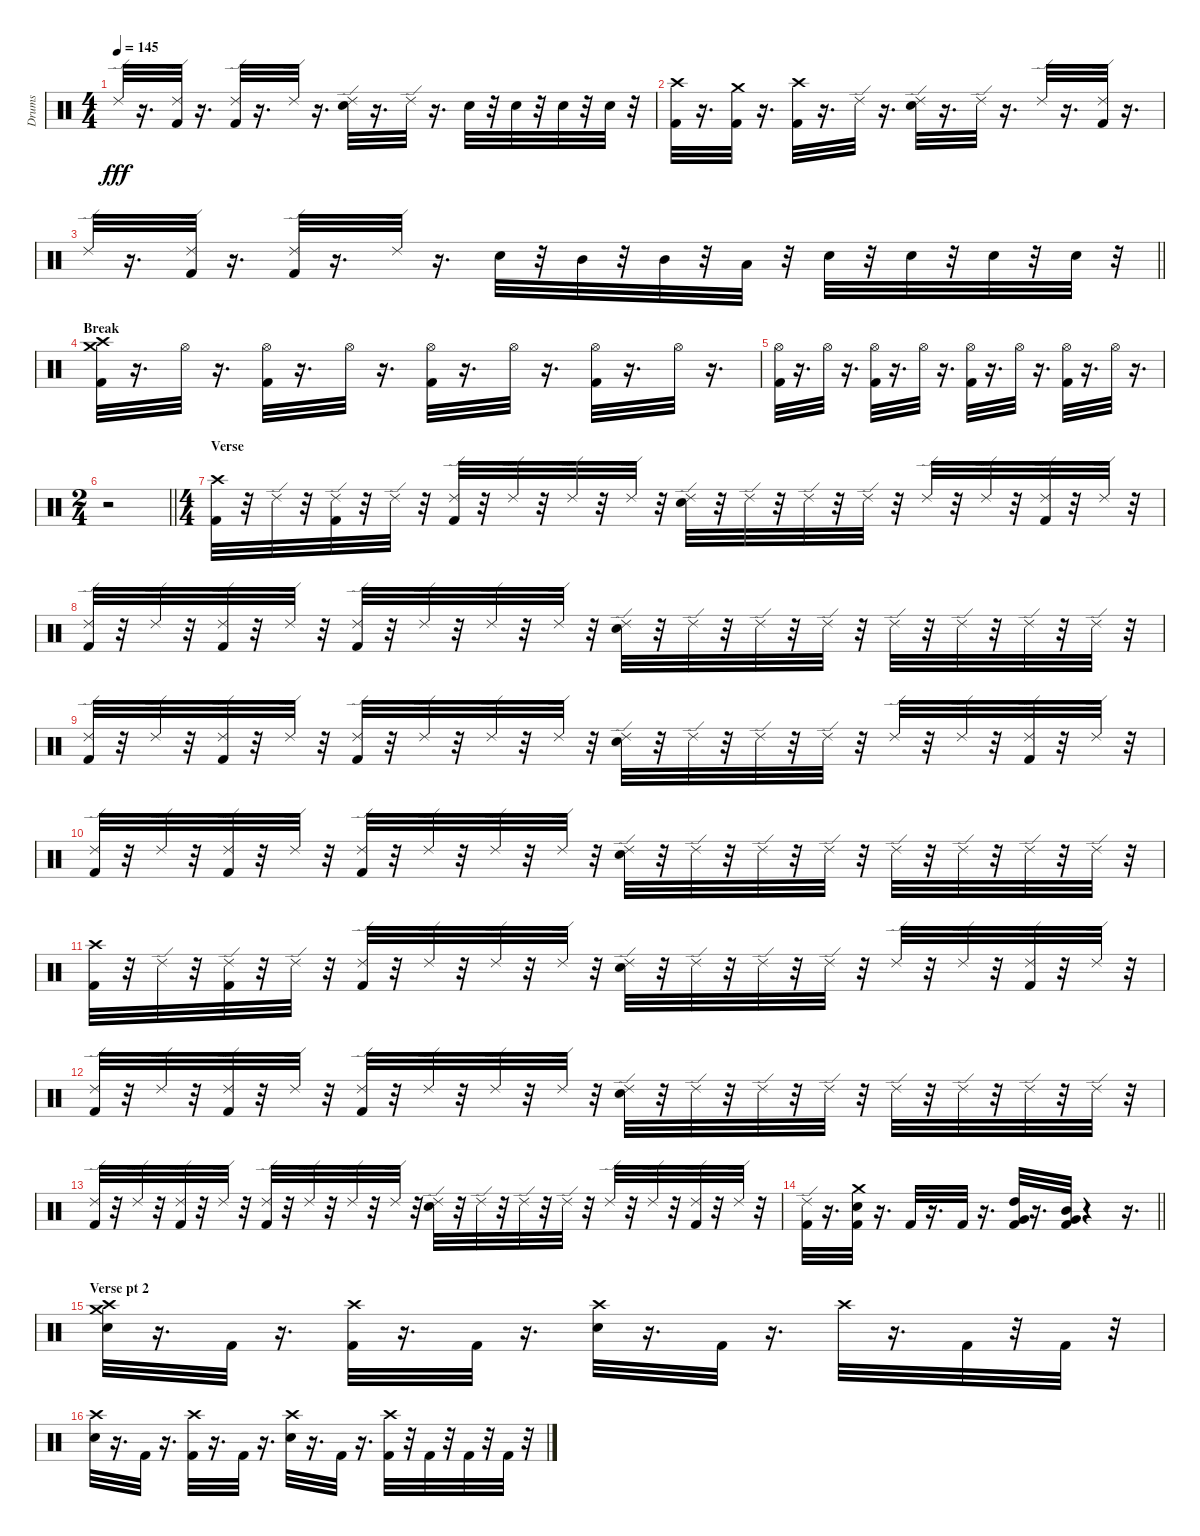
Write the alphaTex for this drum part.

\track ("Drums" "Drums") {instrument percussion}
\staff {score}
\articulation defaults
\ts (4 4)
\tempo 145
\clef neutral
\ks c "Ride (edge) 2".32{dy fff}
r.16{d} ("Ride (edge) 2" "Kick (hit) 2").32 r.16{d} ("Ride (edge) 2" "Kick (hit) 2").32 r.16{d} "Ride (edge) 2".32 r.16{d} ("Ride (edge) 2" "Snare (hit) 2").32 r.16{d} "Ride (edge) 2".32 r.16{d} "Snare (hit) 2".32 r.32 "Snare (hit) 2".32 r.32 "Snare (hit) 2".32 r.32 "Snare (hit) 2".32 r.32 |
("Crash high (hit)" "Kick (hit) 2").32 r.16{d} ("Crash medium (hit)" "Kick (hit) 2").32 r.16{d} ("Crash high (hit)" "Kick (hit) 2").32 r.16{d} "Ride (edge) 2".32 r.16{d} ("Ride (edge) 2" "Snare (hit) 2").32 r.16{d} "Ride (edge) 2".32 r.16{d} "Ride (edge) 2".32 r.16{d} ("Ride (edge) 2" "Kick (hit) 2").32 r.16{d} |
\barLineRight lightlight "Ride (edge) 2".32
r.16{d} ("Ride (edge) 2" "Kick (hit) 2").32 r.16{d} ("Ride (edge) 2" "Kick (hit) 2").32 r.16{d} "Ride (edge) 2".32 r.16{d} "Snare (hit) 2".32 r.32 "Mid Tom (hit)".32 r.32 "Mid Tom (hit)".32 r.32 "Low Tom (hit)".32 r.32 "Snare (hit) 2".32 r.32 "Snare (hit) 2".32 r.32 "Snare (hit) 2".32 r.32 "Snare (hit) 2".32 r.32 |
\section ("" "Break")
("Kick (hit) 2" "Crash medium (hit)" "Crash high (hit)").32 r.16{d} "Hi-Hat (open)".32 r.16{d} ("Hi-Hat (open)" "Kick (hit) 2").32 r.16{d} "Hi-Hat (open)".32 r.16{d} ("Hi-Hat (open)" "Kick (hit) 2").32 r.16{d} "Hi-Hat (open)".32 r.16{d} ("Hi-Hat (open)" "Kick (hit) 2").32 r.16{d} "Hi-Hat (open)".32 r.16{d} |
("Hi-Hat (open)" "Kick (hit) 2").32 r.16{d} "Hi-Hat (open)".32 r.16{d} ("Hi-Hat (open)" "Kick (hit) 2").32 r.16{d} "Hi-Hat (open)".32 r.16{d} ("Hi-Hat (open)" "Kick (hit) 2").32 r.16{d} "Hi-Hat (open)".32 r.16{d} ("Hi-Hat (open)" "Kick (hit) 2").32 r.16{d} "Hi-Hat (open)".32 r.16{d} |
\ts (2 4)
\barLineRight lightlight
r.2 |
\ts (4 4)
\section ("" "Verse")
("Crash high (hit)" "Kick (hit) 2").32 r.32 "Ride (edge) 2".32 r.32 ("Ride (edge) 2" "Kick (hit) 2").32 r.32 "Ride (edge) 2".32 r.32 ("Ride (edge) 2" "Kick (hit) 2").32 r.32 "Ride (edge) 2".32 r.32 "Ride (edge) 2".32 r.32 "Ride (edge) 2".32 r.32 ("Ride (edge) 2" "Snare (hit) 2").32 r.32 "Ride (edge) 2".32 r.32 "Ride (edge) 2".32 r.32 "Ride (edge) 2".32 r.32 "Ride (edge) 2".32 r.32 "Ride (edge) 2".32 r.32 ("Ride (edge) 2" "Kick (hit) 2").32 r.32 "Ride (edge) 2".32 r.32 |
("Ride (edge) 2" "Kick (hit) 2").32 r.32 "Ride (edge) 2".32 r.32 ("Ride (edge) 2" "Kick (hit) 2").32 r.32 "Ride (edge) 2".32 r.32 ("Ride (edge) 2" "Kick (hit) 2").32 r.32 "Ride (edge) 2".32 r.32 "Ride (edge) 2".32 r.32 "Ride (edge) 2".32 r.32 ("Ride (edge) 2" "Snare (hit) 2").32 r.32 "Ride (edge) 2".32 r.32 "Ride (edge) 2".32 r.32 "Ride (edge) 2".32 r.32 "Ride (edge) 2".32 r.32 "Ride (edge) 2".32 r.32 "Ride (edge) 2".32 r.32 "Ride (edge) 2".32 r.32 |
("Ride (edge) 2" "Kick (hit) 2").32 r.32 "Ride (edge) 2".32 r.32 ("Ride (edge) 2" "Kick (hit) 2").32 r.32 "Ride (edge) 2".32 r.32 ("Ride (edge) 2" "Kick (hit) 2").32 r.32 "Ride (edge) 2".32 r.32 "Ride (edge) 2".32 r.32 "Ride (edge) 2".32 r.32 ("Ride (edge) 2" "Snare (hit) 2").32 r.32 "Ride (edge) 2".32 r.32 "Ride (edge) 2".32 r.32 "Ride (edge) 2".32 r.32 "Ride (edge) 2".32 r.32 "Ride (edge) 2".32 r.32 ("Ride (edge) 2" "Kick (hit) 2").32 r.32 "Ride (edge) 2".32 r.32 |
("Ride (edge) 2" "Kick (hit) 2").32 r.32 "Ride (edge) 2".32 r.32 ("Ride (edge) 2" "Kick (hit) 2").32 r.32 "Ride (edge) 2".32 r.32 ("Ride (edge) 2" "Kick (hit) 2").32 r.32 "Ride (edge) 2".32 r.32 "Ride (edge) 2".32 r.32 "Ride (edge) 2".32 r.32 ("Ride (edge) 2" "Snare (hit) 2").32 r.32 "Ride (edge) 2".32 r.32 "Ride (edge) 2".32 r.32 "Ride (edge) 2".32 r.32 "Ride (edge) 2".32 r.32 "Ride (edge) 2".32 r.32 "Ride (edge) 2".32 r.32 "Ride (edge) 2".32 r.32 |
("Crash high (hit)" "Kick (hit) 2").32 r.32 "Ride (edge) 2".32 r.32 ("Ride (edge) 2" "Kick (hit) 2").32 r.32 "Ride (edge) 2".32 r.32 ("Ride (edge) 2" "Kick (hit) 2").32 r.32 "Ride (edge) 2".32 r.32 "Ride (edge) 2".32 r.32 "Ride (edge) 2".32 r.32 ("Ride (edge) 2" "Snare (hit) 2").32 r.32 "Ride (edge) 2".32 r.32 "Ride (edge) 2".32 r.32 "Ride (edge) 2".32 r.32 "Ride (edge) 2".32 r.32 "Ride (edge) 2".32 r.32 ("Ride (edge) 2" "Kick (hit) 2").32 r.32 "Ride (edge) 2".32 r.32 |
("Ride (edge) 2" "Kick (hit) 2").32 r.32 "Ride (edge) 2".32 r.32 ("Ride (edge) 2" "Kick (hit) 2").32 r.32 "Ride (edge) 2".32 r.32 ("Ride (edge) 2" "Kick (hit) 2").32 r.32 "Ride (edge) 2".32 r.32 "Ride (edge) 2".32 r.32 "Ride (edge) 2".32 r.32 ("Ride (edge) 2" "Snare (hit) 2").32 r.32 "Ride (edge) 2".32 r.32 "Ride (edge) 2".32 r.32 "Ride (edge) 2".32 r.32 "Ride (edge) 2".32 r.32 "Ride (edge) 2".32 r.32 "Ride (edge) 2".32 r.32 "Ride (edge) 2".32 r.32 |
("Ride (edge) 2" "Kick (hit) 2").32 r.32 "Ride (edge) 2".32 r.32 ("Ride (edge) 2" "Kick (hit) 2").32 r.32 "Ride (edge) 2".32 r.32 ("Ride (edge) 2" "Kick (hit) 2").32 r.32 "Ride (edge) 2".32 r.32 "Ride (edge) 2".32 r.32 "Ride (edge) 2".32 r.32 ("Ride (edge) 2" "Snare (hit) 2").32 r.32 "Ride (edge) 2".32 r.32 "Ride (edge) 2".32 r.32 "Ride (edge) 2".32 r.32 "Ride (edge) 2".32 r.32 "Ride (edge) 2".32 r.32 ("Kick (hit) 2" "Ride (edge) 2").32 r.32 "Ride (edge) 2".32 r.32 |
\barLineRight lightlight
("Ride (edge) 2" "Kick (hit) 2").32 r.16{d} ("Crash medium (hit)" "Snare (hit) 2" "Kick (hit) 2").32 r.16{d} "Kick (hit) 2".32 r.16{d} "Kick (hit) 2".32 r.16{d} ("Kick (hit) 2" "High Tom (hit)" "Very Low Tom (hit)").32 r.16{d} ("Mid Tom (hit)" "Very Low Tom (hit)" "Kick (hit) 2").32 r.4 r.16{d} |
\section ("" "Verse pt 2")
("Snare (hit) 2" "Crash medium (hit)" "Crash high (hit)").32 r.16{d} "Kick (hit) 2".32 r.16{d} ("Kick (hit) 2" "Crash high (hit)").32 r.16{d} "Kick (hit) 2".32 r.16{d} ("Snare (hit) 2" "Crash high (hit)").32 r.16{d} "Kick (hit) 2".32 r.16{d} "Crash high (hit)".32 r.16{d} "Kick (hit) 2".32 r.32 "Kick (hit) 2".32 r.32 |
("Snare (hit) 2" "Crash high (hit)").32 r.16{d} "Kick (hit) 2".32 r.16{d} ("Kick (hit) 2" "Crash high (hit)").32 r.16{d} "Kick (hit) 2".32 r.16{d} ("Snare (hit) 2" "Crash high (hit)").32 r.16{d} "Kick (hit) 2".32 r.16{d} ("Kick (hit) 2" "Crash high (hit)").32 r.32 "Kick (hit) 2".32 r.32 "Kick (hit) 2".32 r.32 "Kick (hit) 2".32 r.32
